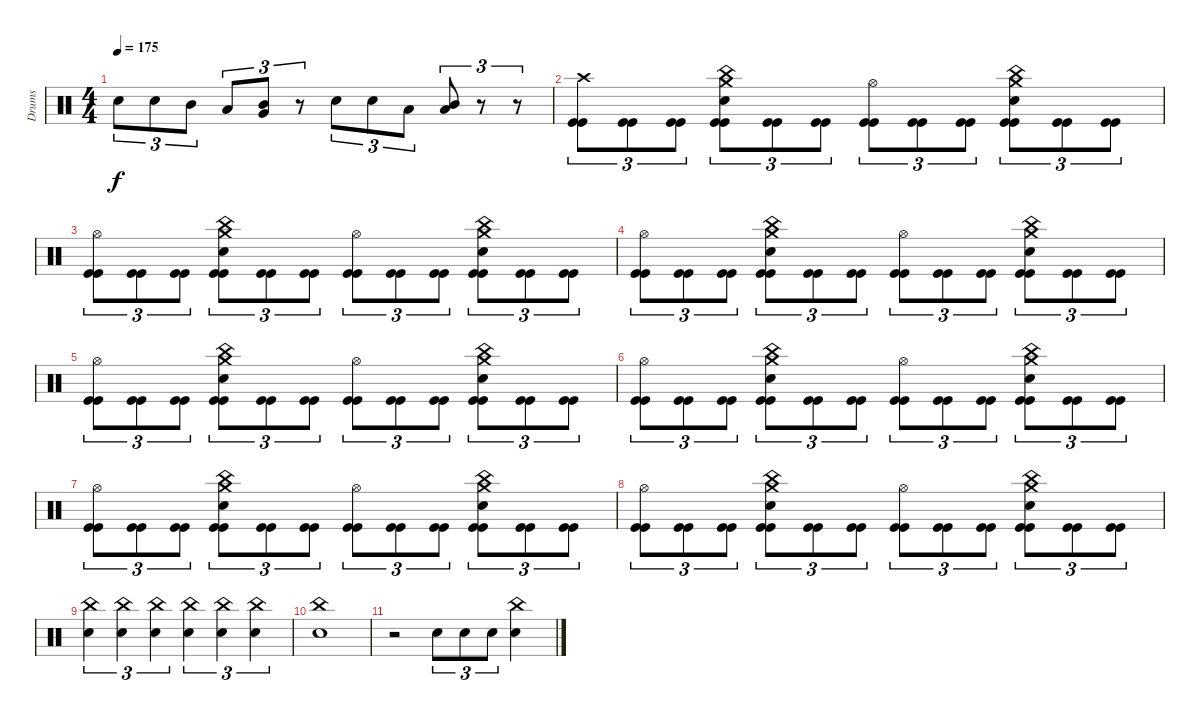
\track ("Drums" "Drums") {instrument percussion}
\staff {score}
\articulation defaults
\ts (4 4)
\tempo 175
\clef neutral
\ks c "Snare (hit) 2".8{tu (3 2) dy f} "Snare (hit) 2".8{tu (3 2)} "Mid Tom (hit)".8{tu (3 2)} "Low Tom (hit)".8{tu (3 2)}
("Very Low Tom (hit)" "Mid Tom (hit)").8{tu (3 2)} r.8{tu (3 2)} "Snare (hit) 2".8{tu (3 2)} "Snare (hit) 2".8{tu (3 2)} "Low Tom (hit)".8{tu (3 2)} ("Low Floor Tom (hit)" "Mid Tom (hit)").8{tu (3 2)} r.8{tu (3 2)} r.8{tu (3 2)} |
("Kick (hit)" "Kick (hit)" "Crash high (hit)").8{tu (3 2)} ("Kick (hit)" "Kick (hit)").8{tu (3 2)} ("Kick (hit)" "Kick (hit)").8{tu (3 2)} ("Kick (hit)" "Kick (hit)" "Snare (hit) 2" "China (hit)" "Crash medium (hit)").8{tu (3 2)} ("Kick (hit)" "Kick (hit)").8{tu (3 2)} ("Kick (hit)" "Kick (hit)").8{tu (3 2)} ("Kick (hit)" "Kick (hit)" "Hi-Hat (open)").8{tu (3 2)} ("Kick (hit)" "Kick (hit)").8{tu (3 2)} ("Kick (hit)" "Kick (hit)").8{tu (3 2)} ("Kick (hit)" "Kick (hit)" "Snare (hit) 2" "Crash medium (hit)" "China (hit)").8{tu (3 2)} ("Kick (hit)" "Kick (hit)").8{tu (3 2)} ("Kick (hit)" "Kick (hit)").8{tu (3 2)} |
("Kick (hit)" "Kick (hit)" "Hi-Hat (open)").8{tu (3 2)} ("Kick (hit)" "Kick (hit)").8{tu (3 2)} ("Kick (hit)" "Kick (hit)").8{tu (3 2)} ("Kick (hit)" "Kick (hit)" "Snare (hit) 2" "Crash medium (hit)" "China (hit)").8{tu (3 2)} ("Kick (hit)" "Kick (hit)").8{tu (3 2)} ("Kick (hit)" "Kick (hit)").8{tu (3 2)} ("Kick (hit)" "Kick (hit)" "Hi-Hat (open)").8{tu (3 2)} ("Kick (hit)" "Kick (hit)").8{tu (3 2)} ("Kick (hit)" "Kick (hit)").8{tu (3 2)} ("Kick (hit)" "Kick (hit)" "Snare (hit) 2" "Crash medium (hit)" "China (hit)").8{tu (3 2)} ("Kick (hit)" "Kick (hit)").8{tu (3 2)} ("Kick (hit)" "Kick (hit)").8{tu (3 2)} |
("Kick (hit)" "Kick (hit)" "Hi-Hat (open)").8{tu (3 2)} ("Kick (hit)" "Kick (hit)").8{tu (3 2)} ("Kick (hit)" "Kick (hit)").8{tu (3 2)} ("Kick (hit)" "Kick (hit)" "Snare (hit) 2" "Crash medium (hit)" "China (hit)").8{tu (3 2)} ("Kick (hit)" "Kick (hit)").8{tu (3 2)} ("Kick (hit)" "Kick (hit)").8{tu (3 2)} ("Kick (hit)" "Kick (hit)" "Hi-Hat (open)").8{tu (3 2)} ("Kick (hit)" "Kick (hit)").8{tu (3 2)} ("Kick (hit)" "Kick (hit)").8{tu (3 2)} ("Kick (hit)" "Kick (hit)" "Snare (hit) 2" "Crash medium (hit)" "China (hit)").8{tu (3 2)} ("Kick (hit)" "Kick (hit)").8{tu (3 2)} ("Kick (hit)" "Kick (hit)").8{tu (3 2)} |
("Kick (hit)" "Kick (hit)" "Hi-Hat (open)").8{tu (3 2)} ("Kick (hit)" "Kick (hit)").8{tu (3 2)} ("Kick (hit)" "Kick (hit)").8{tu (3 2)} ("Kick (hit)" "Kick (hit)" "Snare (hit) 2" "Crash medium (hit)" "China (hit)").8{tu (3 2)} ("Kick (hit)" "Kick (hit)").8{tu (3 2)} ("Kick (hit)" "Kick (hit)").8{tu (3 2)} ("Kick (hit)" "Kick (hit)" "Hi-Hat (open)").8{tu (3 2)} ("Kick (hit)" "Kick (hit)").8{tu (3 2)} ("Kick (hit)" "Kick (hit)").8{tu (3 2)} ("Kick (hit)" "Kick (hit)" "Snare (hit) 2" "Crash medium (hit)" "China (hit)").8{tu (3 2)} ("Kick (hit)" "Kick (hit)").8{tu (3 2)} ("Kick (hit)" "Kick (hit)").8{tu (3 2)} |
("Kick (hit)" "Kick (hit)" "Hi-Hat (open)").8{tu (3 2)} ("Kick (hit)" "Kick (hit)").8{tu (3 2)} ("Kick (hit)" "Kick (hit)").8{tu (3 2)} ("Kick (hit)" "Kick (hit)" "Snare (hit) 2" "Crash medium (hit)" "China (hit)").8{tu (3 2)} ("Kick (hit)" "Kick (hit)").8{tu (3 2)} ("Kick (hit)" "Kick (hit)").8{tu (3 2)} ("Kick (hit)" "Kick (hit)" "Hi-Hat (open)").8{tu (3 2)} ("Kick (hit)" "Kick (hit)").8{tu (3 2)} ("Kick (hit)" "Kick (hit)").8{tu (3 2)} ("Kick (hit)" "Kick (hit)" "Snare (hit) 2" "Crash medium (hit)" "China (hit)").8{tu (3 2)} ("Kick (hit)" "Kick (hit)").8{tu (3 2)} ("Kick (hit)" "Kick (hit)").8{tu (3 2)} |
("Kick (hit)" "Kick (hit)" "Hi-Hat (open)").8{tu (3 2)} ("Kick (hit)" "Kick (hit)").8{tu (3 2)} ("Kick (hit)" "Kick (hit)").8{tu (3 2)} ("Kick (hit)" "Kick (hit)" "Snare (hit) 2" "Crash medium (hit)" "China (hit)").8{tu (3 2)} ("Kick (hit)" "Kick (hit)").8{tu (3 2)} ("Kick (hit)" "Kick (hit)").8{tu (3 2)} ("Kick (hit)" "Kick (hit)" "Hi-Hat (open)").8{tu (3 2)} ("Kick (hit)" "Kick (hit)").8{tu (3 2)} ("Kick (hit)" "Kick (hit)").8{tu (3 2)} ("Kick (hit)" "Kick (hit)" "Snare (hit) 2" "Crash medium (hit)" "China (hit)").8{tu (3 2)} ("Kick (hit)" "Kick (hit)").8{tu (3 2)} ("Kick (hit)" "Kick (hit)").8{tu (3 2)} |
("Kick (hit)" "Kick (hit)" "Hi-Hat (open)").8{tu (3 2)} ("Kick (hit)" "Kick (hit)").8{tu (3 2)} ("Kick (hit)" "Kick (hit)").8{tu (3 2)} ("Kick (hit)" "Kick (hit)" "Snare (hit) 2" "Crash medium (hit)" "China (hit)").8{tu (3 2)} ("Kick (hit)" "Kick (hit)").8{tu (3 2)} ("Kick (hit)" "Kick (hit)").8{tu (3 2)} ("Kick (hit)" "Kick (hit)" "Hi-Hat (open)").8{tu (3 2)} ("Kick (hit)" "Kick (hit)").8{tu (3 2)} ("Kick (hit)" "Kick (hit)").8{tu (3 2)} ("Kick (hit)" "Kick (hit)" "Snare (hit) 2" "Crash medium (hit)" "China (hit)").8{tu (3 2)} ("Kick (hit)" "Kick (hit)").8{tu (3 2)} ("Kick (hit)" "Kick (hit)").8{tu (3 2)} |
("Snare (hit) 2" "China (hit)").4{tu (3 2)} ("Snare (hit) 2" "China (hit)").4{tu (3 2)} ("Snare (hit) 2" "China (hit)").4{tu (3 2)} ("Snare (hit) 2" "China (hit)").4{tu (3 2)} ("Snare (hit) 2" "China (hit)").4{tu (3 2)} ("Snare (hit) 2" "China (hit)").4{tu (3 2)} |
("Snare (hit) 2" "China (hit)").1 |
r.2 "Snare (hit) 2".8{tu (3 2)} "Snare (hit) 2".8{tu (3 2)} "Snare (hit) 2".8{tu (3 2)} ("Snare (hit) 2" "China (hit)").4
